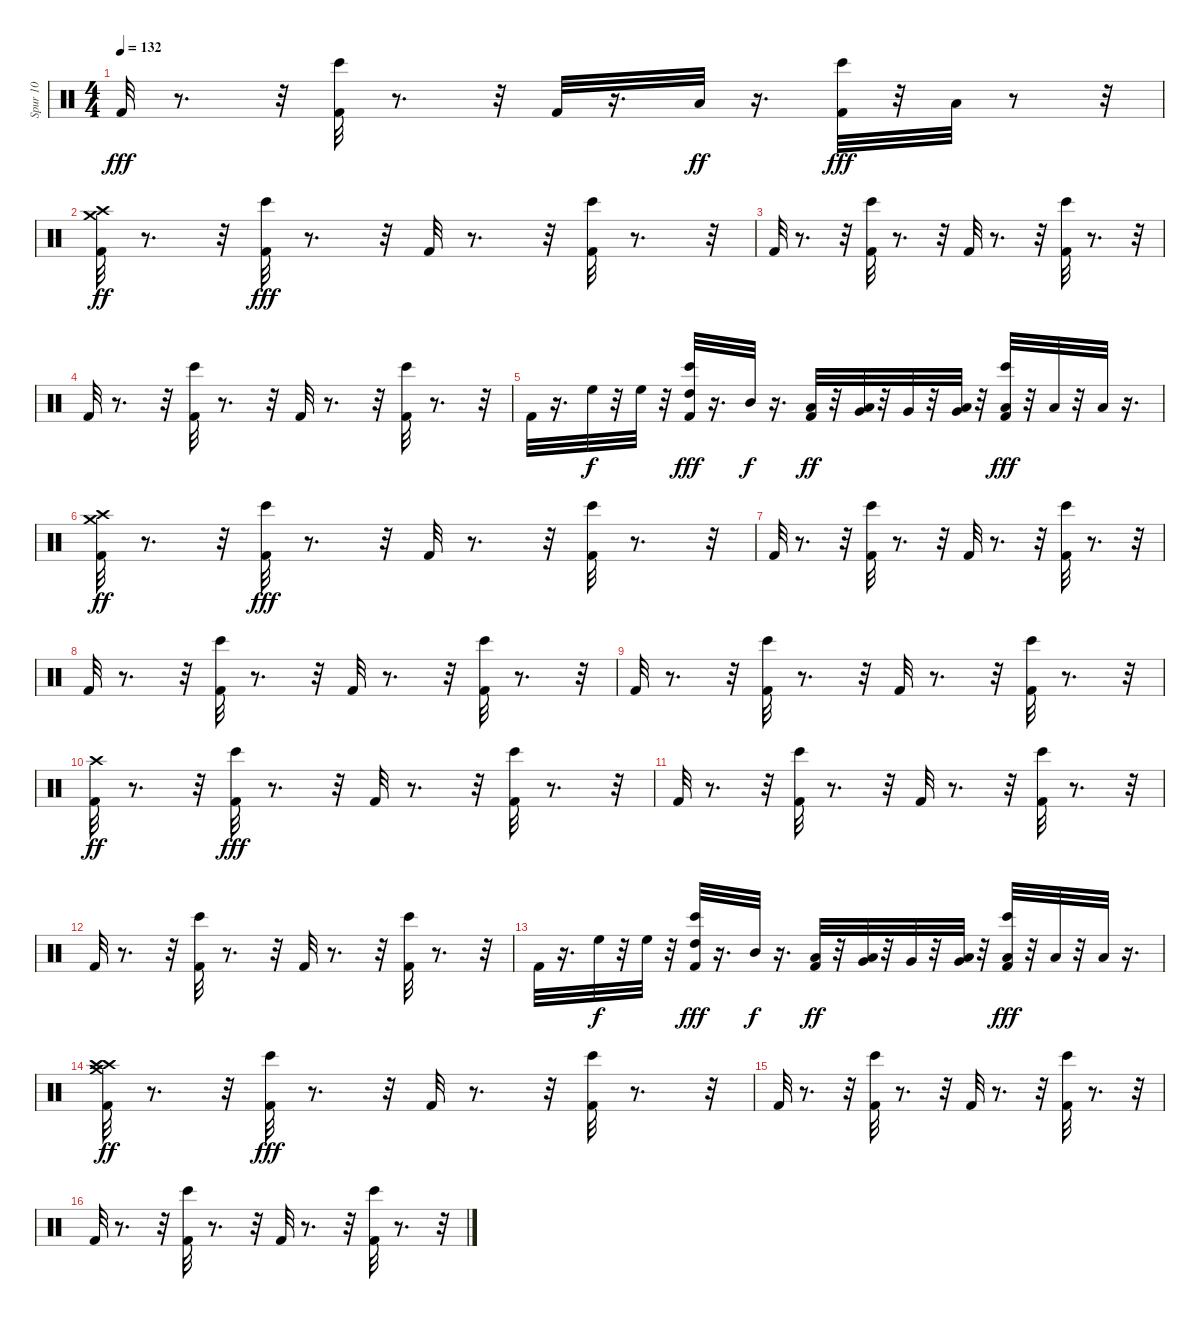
\track ("Spur 10" "Spur 10") {instrument percussion}
\staff {score}
\articulation defaults
\ts (4 4)
\tempo 132
\clef neutral
\ks c "Kick (hit) 2".32{dy fff}
r.8{d} r.32 ("Bongo High (hit)" "Kick (hit) 2").32 r.8{d} r.32 "Kick (hit) 2".32 r.16{d} "Low Tom (hit)".32{dy ff} r.16{d} ("Bongo High (hit)" "Kick (hit) 2").32{dy fff} r.32 "Low Floor Tom (hit)".32 r.8 r.32 |
("Crash medium (hit)" "Kick (hit) 2" "Crash high (hit)").32{dy ff} r.8{d} r.32 ("Bongo High (hit)" "Kick (hit) 2").32{dy fff} r.8{d} r.32 "Kick (hit) 2".32 r.8{d} r.32 ("Bongo High (hit)" "Kick (hit) 2").32 r.8{d} r.32 |
"Kick (hit) 2".32 r.8{d} r.32 ("Bongo High (hit)" "Kick (hit) 2").32 r.8{d} r.32 "Kick (hit) 2".32 r.8{d} r.32 ("Bongo High (hit)" "Kick (hit) 2").32 r.8{d} r.32 |
"Kick (hit) 2".32 r.8{d} r.32 ("Bongo High (hit)" "Kick (hit) 2").32 r.8{d} r.32 "Kick (hit) 2".32 r.8{d} r.32 ("Bongo High (hit)" "Kick (hit) 2").32 r.8{d} r.32 |
"Kick (hit) 2".32 r.16{d} "High Floor Tom (hit)".32{dy f} r.32 "High Floor Tom (hit)".32 r.32 ("Bongo High (hit)" "Kick (hit) 2" "High Tom (hit)").32{dy fff} r.16{d} "Mid Tom (hit)".32{dy f} r.16{d} ("Kick (hit) 2" "Low Tom (hit)").32{dy ff} r.32 ("Very Low Tom (hit)" "Low Tom (hit)").32 r.32 "Very Low Tom (hit)".32 r.32 ("Very Low Tom (hit)" "Low Floor Tom (hit)").32 r.32 ("Bongo High (hit)" "Kick (hit) 2" "Low Floor Tom (hit)").32{dy fff} r.32 "Low Floor Tom (hit)".32 r.32 "Low Floor Tom (hit)".32 r.16{d} |
("Crash medium (hit)" "Kick (hit) 2" "Crash high (hit)").32{dy ff} r.8{d} r.32 ("Bongo High (hit)" "Kick (hit) 2").32{dy fff} r.8{d} r.32 "Kick (hit) 2".32 r.8{d} r.32 ("Bongo High (hit)" "Kick (hit) 2").32 r.8{d} r.32 |
"Kick (hit) 2".32 r.8{d} r.32 ("Bongo High (hit)" "Kick (hit) 2").32 r.8{d} r.32 "Kick (hit) 2".32 r.8{d} r.32 ("Bongo High (hit)" "Kick (hit) 2").32 r.8{d} r.32 |
"Kick (hit) 2".32 r.8{d} r.32 ("Bongo High (hit)" "Kick (hit) 2").32 r.8{d} r.32 "Kick (hit) 2".32 r.8{d} r.32 ("Bongo High (hit)" "Kick (hit) 2").32 r.8{d} r.32 |
"Kick (hit) 2".32 r.8{d} r.32 ("Bongo High (hit)" "Kick (hit) 2").32 r.8{d} r.32 "Kick (hit) 2".32 r.8{d} r.32 ("Bongo High (hit)" "Kick (hit) 2").32 r.8{d} r.32 |
("Kick (hit) 2" "Crash high (hit)").32{dy ff} r.8{d} r.32 ("Bongo High (hit)" "Kick (hit) 2").32{dy fff} r.8{d} r.32 "Kick (hit) 2".32 r.8{d} r.32 ("Bongo High (hit)" "Kick (hit) 2").32 r.8{d} r.32 |
"Kick (hit) 2".32 r.8{d} r.32 ("Bongo High (hit)" "Kick (hit) 2").32 r.8{d} r.32 "Kick (hit) 2".32 r.8{d} r.32 ("Bongo High (hit)" "Kick (hit) 2").32 r.8{d} r.32 |
"Kick (hit) 2".32 r.8{d} r.32 ("Bongo High (hit)" "Kick (hit) 2").32 r.8{d} r.32 "Kick (hit) 2".32 r.8{d} r.32 ("Bongo High (hit)" "Kick (hit) 2").32 r.8{d} r.32 |
"Kick (hit) 2".32 r.16{d} "High Floor Tom (hit)".32{dy f} r.32 "High Floor Tom (hit)".32 r.32 ("Bongo High (hit)" "Kick (hit) 2" "High Tom (hit)").32{dy fff} r.16{d} "Mid Tom (hit)".32{dy f} r.16{d} ("Kick (hit) 2" "Low Tom (hit)").32{dy ff} r.32 ("Very Low Tom (hit)" "Low Tom (hit)").32 r.32 "Very Low Tom (hit)".32 r.32 ("Very Low Tom (hit)" "Low Floor Tom (hit)").32 r.32 ("Bongo High (hit)" "Kick (hit) 2" "Low Floor Tom (hit)").32{dy fff} r.32 "Low Floor Tom (hit)".32 r.32 "Low Floor Tom (hit)".32 r.16{d} |
("Crash medium (hit)" "Kick (hit) 2" "Crash high (hit)" "Crash high (hit)").32{dy ff} r.8{d} r.32 ("Bongo High (hit)" "Kick (hit) 2").32{dy fff} r.8{d} r.32 "Kick (hit) 2".32 r.8{d} r.32 ("Bongo High (hit)" "Kick (hit) 2").32 r.8{d} r.32 |
"Kick (hit) 2".32 r.8{d} r.32 ("Bongo High (hit)" "Kick (hit) 2").32 r.8{d} r.32 "Kick (hit) 2".32 r.8{d} r.32 ("Bongo High (hit)" "Kick (hit) 2").32 r.8{d} r.32 |
"Kick (hit) 2".32 r.8{d} r.32 ("Bongo High (hit)" "Kick (hit) 2").32 r.8{d} r.32 "Kick (hit) 2".32 r.8{d} r.32 ("Bongo High (hit)" "Kick (hit) 2").32 r.8{d} r.32
